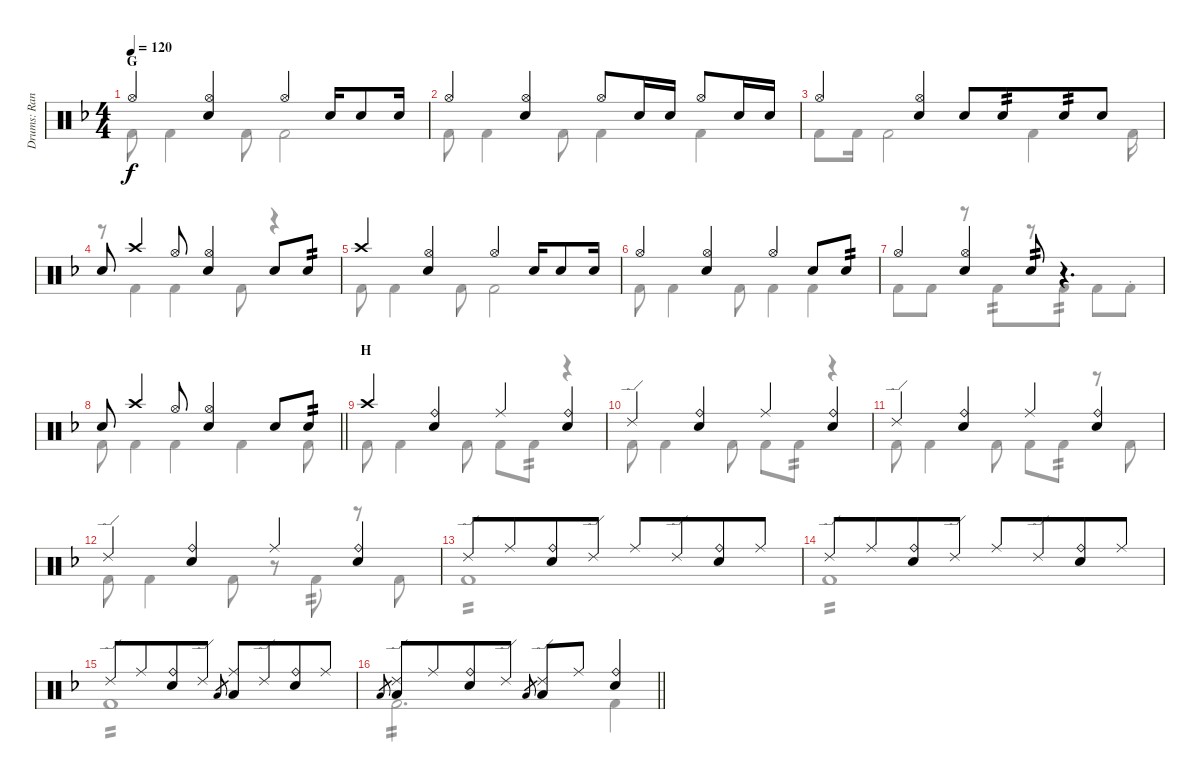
\track ("Drums: Randy" "Drums: Ran") {instrument percussion}
\staff {score}
\articulation defaults
\voice
\ts (4 4)
\section ("" "G")
\tempo 120
\clef neutral
\ks f "Hi-Hat (open)".4{dy f}
("Hi-Hat (open)" "Snare (hit) 2").4 "Hi-Hat (open)".4 "Snare (hit) 2".16 "Snare (hit) 2".8 "Snare (hit) 2".16 |
"Hi-Hat (open)".4 ("Hi-Hat (open)" "Snare (hit) 2").4 "Hi-Hat (open)".8 "Snare (hit) 2".16 "Snare (hit) 2".16 "Hi-Hat (open)".8 "Snare (hit) 2".16 "Snare (hit) 2".16 |
"Hi-Hat (open)".4 ("Hi-Hat (open)" "Snare (hit) 2").4 "Snare (hit) 2".8 "Snare (hit) 2".8{tp 2 beam merge} "Snare (hit) 2".8{tp 2} "Snare (hit) 2".8 |
"Snare (hit) 2".8 "Crash high (hit)".4 "Hi-Hat (open)".8 ("Hi-Hat (open)" "Snare (hit) 2").4 "Snare (hit) 2".8 "Snare (hit) 2".8{tp 2} |
"Crash high (hit)".4 ("Hi-Hat (open)" "Snare (hit) 2").4 "Hi-Hat (open)".4 "Snare (hit) 2".16 "Snare (hit) 2".8 "Snare (hit) 2".16 |
"Hi-Hat (open)".4 ("Hi-Hat (open)" "Snare (hit) 2").4 "Hi-Hat (open)".4 "Snare (hit) 2".8 "Snare (hit) 2".8{tp 2} |
"Hi-Hat (open)".4 ("Hi-Hat (open)" "Snare (hit) 2").4 "Snare (hit) 2".8{tp 2} r.4{d} |
\barLineRight lightlight "Snare (hit) 2".8 "Crash high (hit)".4 "Hi-Hat (open)".8
("Hi-Hat (open)" "Snare (hit) 2").4 "Snare (hit) 2".8 "Snare (hit) 2".8{tp 2} |
\section ("" "H")
"Crash high (hit)".4 ("Ride (bell)" "Snare (hit) 2").4 "Ride (middle)".4 ("Ride (bell)" "Snare (hit) 2").4 |
"Ride (edge) 2".4 ("Ride (bell)" "Snare (hit) 2").4 "Ride (middle)".4 ("Ride (bell)" "Snare (hit) 2").4 |
"Ride (edge) 2".4 ("Ride (bell)" "Snare (hit) 2").4 "Ride (middle)".4 ("Ride (bell)" "Snare (hit) 2").4 |
"Ride (edge) 2".4 ("Ride (bell)" "Snare (hit) 2").4 "Ride (middle)".4 ("Ride (bell)" "Snare (hit) 2").4 |
"Ride (edge) 2".8 "Ride (middle)".8{beam merge} ("Ride (bell)" "Snare (hit) 2").8 "Ride (edge) 2".8 "Ride (middle)".8 "Ride (edge) 2".8{beam merge} ("Ride (bell)" "Snare (hit) 2").8 "Ride (middle)".8 |
"Ride (edge) 2".8 "Ride (middle)".8{beam merge} ("Ride (bell)" "Snare (hit) 2").8 "Ride (edge) 2".8 "Ride (middle)".8 "Ride (edge) 2".8{beam merge} ("Ride (bell)" "Snare (hit) 2").8 "Ride (middle)".8 |
"Ride (edge) 2".8 "Ride (middle)".8{beam merge} ("Ride (bell)" "Snare (hit) 2").8 "Ride (edge) 2".8 "Low Tom (hit)".8{gr} ("Ride (middle)" "Low Tom (hit)").8 "Ride (edge) 2".8{beam merge} ("Ride (bell)" "Snare (hit) 2").8 "Ride (middle)".8 |
\barLineRight lightlight "Low Tom (hit)".8{gr}
("Ride (edge) 2" "Low Tom (hit)").8 "Ride (middle)".8{beam merge} ("Ride (bell)" "Snare (hit) 2").8 "Ride (edge) 2".8 "Low Tom (hit)".8{gr} ("Ride (edge) 2" "Low Tom (hit)").8 "Ride (middle)".8{beam merge} ("Ride (bell)" "Snare (hit) 2").4
\voice
\clef neutral
\ottava regular
\simile none
\ks f "Kick (hit) 2".8{dy f} "Kick (hit) 2".4 "Kick (hit) 2".8 "Kick (hit) 2".2
|
"Kick (hit) 2".8 "Kick (hit) 2".4 "Kick (hit) 2".8 "Kick (hit) 2".4 "Kick (hit) 2".4 |
"Kick (hit) 2".8 "Kick (hit) 2".16 "Kick (hit) 2".2 "Kick (hit) 2".4 "Kick (hit) 2".16 |
r.8 "Kick (hit) 2".4 "Kick (hit) 2".4 "Kick (hit) 2".8 r.4 |
"Kick (hit) 2".8 "Kick (hit) 2".4 "Kick (hit) 2".8 "Kick (hit) 2".2 |
"Kick (hit) 2".8 "Kick (hit) 2".4 "Kick (hit) 2".8 "Kick (hit) 2".4 "Kick (hit) 2".4 |
"Kick (hit) 2".8 "Kick (hit) 2".8 r.8 "Kick (hit) 2".8{tp 2 beam merge} r.8 "Kick (hit) 2".8{tp 2} "Kick (hit) 2".8 "Kick (hit) 2"{st}.8 |
\barLineRight lightlight "Kick (hit) 2".8 "Kick (hit) 2".4 "Kick (hit) 2".4 "Kick (hit) 2".4 "Kick (hit) 2".8
|
"Kick (hit) 2".8 "Kick (hit) 2".4 "Kick (hit) 2".8 "Kick (hit) 2".8 "Kick (hit) 2".8{tp 2} r.4 |
"Kick (hit) 2".8 "Kick (hit) 2".4 "Kick (hit) 2".8 "Kick (hit) 2".8 "Kick (hit) 2".8{tp 2} r.4 |
"Kick (hit) 2".8 "Kick (hit) 2".4 "Kick (hit) 2".8 "Kick (hit) 2".8 "Kick (hit) 2".8{tp 2} r.8 "Kick (hit) 2".8 |
"Kick (hit) 2".8 "Kick (hit) 2".4 "Kick (hit) 2".8 r.8 "Kick (hit) 2".8{tp 2} r.8 "Kick (hit) 2".8 |
"Kick (hit) 2".1{tp 2} |
"Kick (hit) 2".1{tp 2} |
"Kick (hit) 2".1{tp 2} |
\barLineRight lightlight "Kick (hit) 2".2{d tp 2} "Kick (hit) 2".4
